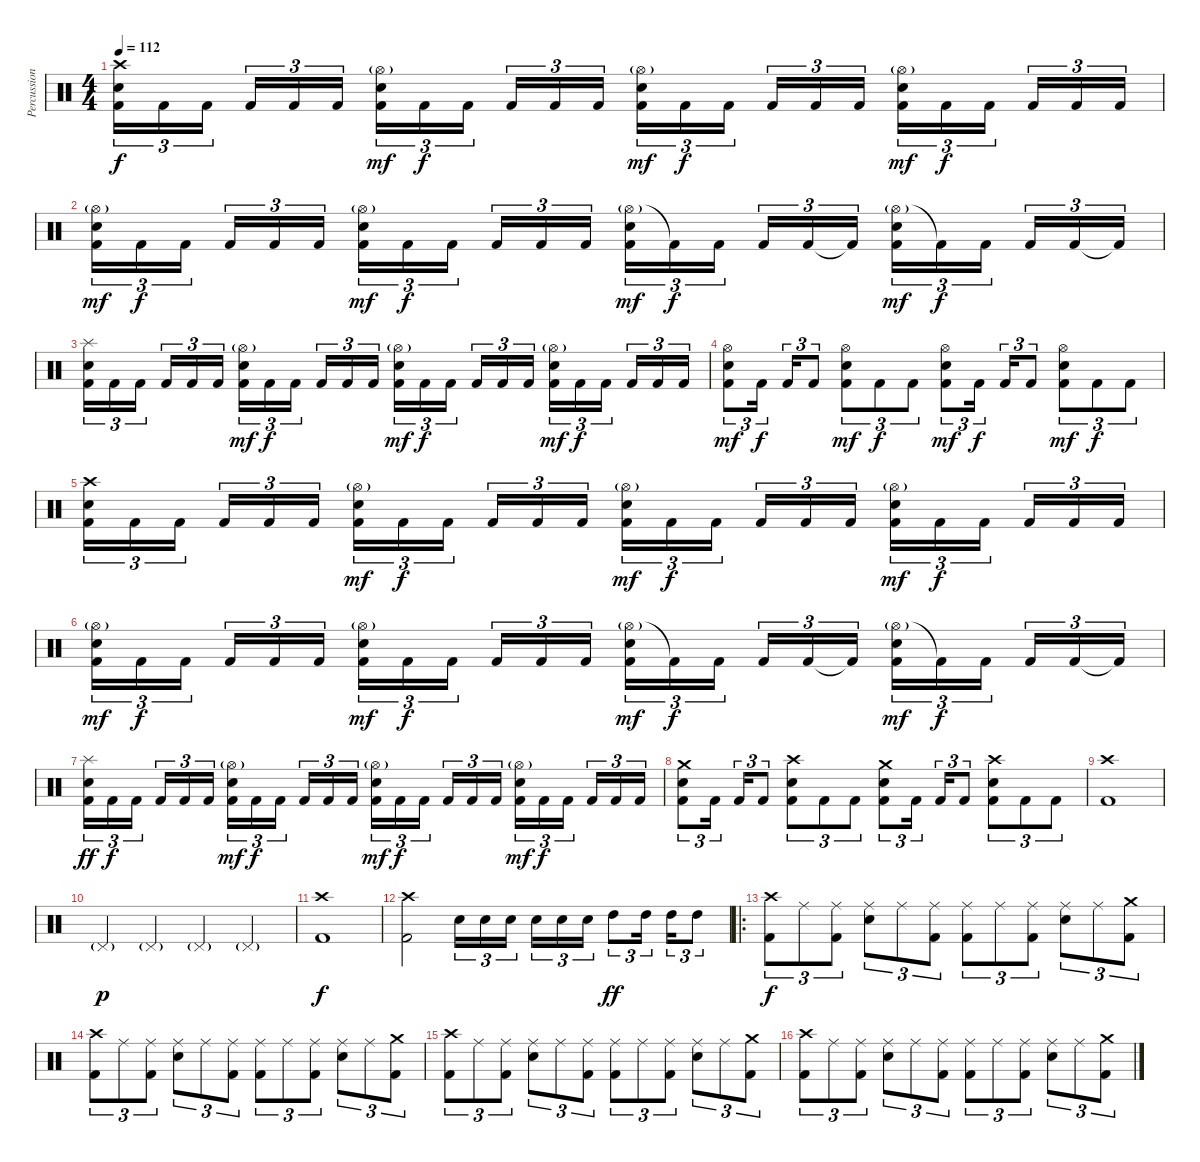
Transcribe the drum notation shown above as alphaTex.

\track ("Percussion" "Percussion") {instrument percussion}
\staff {score}
\articulation defaults
\ts (4 4)
\tempo 112
\clef neutral
\ks c
("Crash high (hit)" "Electric Snare (hit)" "Kick (hit) 2").16{tu (3 2) dy f} "Kick (hit) 2".16{tu (3 2)} "Kick (hit) 2".16{tu (3 2)} "Kick (hit) 2".16{tu (3 2)} "Kick (hit) 2".16{tu (3 2)} "Kick (hit) 2".16{tu (3 2)} ("Hi-Hat (open)"{g} "Electric Snare (hit)" "Kick (hit) 2").16{tu (3 2) dy mf} "Kick (hit) 2".16{tu (3 2) dy f} "Kick (hit) 2".16{tu (3 2)} "Kick (hit) 2".16{tu (3 2)} "Kick (hit) 2".16{tu (3 2)} "Kick (hit) 2".16{tu (3 2)} ("Hi-Hat (open)"{g} "Electric Snare (hit)" "Kick (hit) 2").16{tu (3 2) dy mf} "Kick (hit) 2".16{tu (3 2) dy f} "Kick (hit) 2".16{tu (3 2)} "Kick (hit) 2".16{tu (3 2)} "Kick (hit) 2".16{tu (3 2)} "Kick (hit) 2".16{tu (3 2)} ("Hi-Hat (open)"{g} "Electric Snare (hit)" "Kick (hit) 2").16{tu (3 2) dy mf} "Kick (hit) 2".16{tu (3 2) dy f} "Kick (hit) 2".16{tu (3 2)} "Kick (hit) 2".16{tu (3 2)} "Kick (hit) 2".16{tu (3 2)} "Kick (hit) 2".16{tu (3 2)} |
("Hi-Hat (open)"{g} "Electric Snare (hit)" "Kick (hit) 2").16{tu (3 2) dy mf} "Kick (hit) 2".16{tu (3 2) dy f} "Kick (hit) 2".16{tu (3 2)} "Kick (hit) 2".16{tu (3 2)} "Kick (hit) 2".16{tu (3 2)} "Kick (hit) 2".16{tu (3 2)} ("Hi-Hat (open)"{g} "Electric Snare (hit)" "Kick (hit) 2").16{tu (3 2) dy mf} "Kick (hit) 2".16{tu (3 2) dy f} "Kick (hit) 2".16{tu (3 2)} "Kick (hit) 2".16{tu (3 2)} "Kick (hit) 2".16{tu (3 2)} "Kick (hit) 2".16{tu (3 2)} ("Hi-Hat (open)"{g} "Electric Snare (hit)" "Kick (hit) 2").16{tu (3 2) dy mf} "Kick (hit) 2"{t}.16{tu (3 2) dy f} "Kick (hit) 2".16{tu (3 2)} "Kick (hit) 2".16{tu (3 2)} "Kick (hit) 2".16{tu (3 2)} "Kick (hit) 2"{t}.16{tu (3 2)} ("Hi-Hat (open)"{g} "Electric Snare (hit)" "Kick (hit) 2").16{tu (3 2) dy mf} "Kick (hit) 2"{t}.16{tu (3 2) dy f} "Kick (hit) 2".16{tu (3 2)} "Kick (hit) 2".16{tu (3 2)} "Kick (hit) 2".16{tu (3 2)} "Kick (hit) 2"{t}.16{tu (3 2)} |
("Splash (hit)" "Electric Snare (hit)" "Kick (hit) 2").16{tu (3 2)} "Kick (hit) 2".16{tu (3 2)} "Kick (hit) 2".16{tu (3 2)} "Kick (hit) 2".16{tu (3 2)} "Kick (hit) 2".16{tu (3 2)} "Kick (hit) 2".16{tu (3 2)} ("Hi-Hat (open)"{g} "Electric Snare (hit)" "Kick (hit) 2").16{tu (3 2) dy mf} "Kick (hit) 2".16{tu (3 2) dy f} "Kick (hit) 2".16{tu (3 2)} "Kick (hit) 2".16{tu (3 2)} "Kick (hit) 2".16{tu (3 2)} "Kick (hit) 2".16{tu (3 2)} ("Hi-Hat (open)"{g} "Electric Snare (hit)" "Kick (hit) 2").16{tu (3 2) dy mf} "Kick (hit) 2".16{tu (3 2) dy f} "Kick (hit) 2".16{tu (3 2)} "Kick (hit) 2".16{tu (3 2)} "Kick (hit) 2".16{tu (3 2)} "Kick (hit) 2".16{tu (3 2)} ("Hi-Hat (open)"{g} "Electric Snare (hit)" "Kick (hit) 2").16{tu (3 2) dy mf} "Kick (hit) 2".16{tu (3 2) dy f} "Kick (hit) 2".16{tu (3 2)} "Kick (hit) 2".16{tu (3 2)} "Kick (hit) 2".16{tu (3 2)} "Kick (hit) 2".16{tu (3 2)} |
("Hi-Hat (open)" "Electric Snare (hit)" "Kick (hit) 2").8{tu (3 2) dy mf} "Kick (hit) 2".16{tu (3 2) dy f} "Kick (hit) 2".16{tu (3 2)} "Kick (hit) 2".8{tu (3 2)} ("Hi-Hat (open)" "Electric Snare (hit)" "Kick (hit) 2").8{tu (3 2) dy mf} "Kick (hit) 2".8{tu (3 2) dy f} "Kick (hit) 2".8{tu (3 2)} ("Hi-Hat (open)" "Electric Snare (hit)" "Kick (hit) 2").8{tu (3 2) dy mf} "Kick (hit) 2".16{tu (3 2) dy f} "Kick (hit) 2".16{tu (3 2)} "Kick (hit) 2".8{tu (3 2)} ("Hi-Hat (open)" "Electric Snare (hit)" "Kick (hit) 2").8{tu (3 2) dy mf} "Kick (hit) 2".8{tu (3 2) dy f} "Kick (hit) 2".8{tu (3 2)} |
("Crash high (hit)" "Electric Snare (hit)" "Kick (hit) 2").16{tu (3 2)} "Kick (hit) 2".16{tu (3 2)} "Kick (hit) 2".16{tu (3 2)} "Kick (hit) 2".16{tu (3 2)} "Kick (hit) 2".16{tu (3 2)} "Kick (hit) 2".16{tu (3 2)} ("Hi-Hat (open)"{g} "Electric Snare (hit)" "Kick (hit) 2").16{tu (3 2) dy mf} "Kick (hit) 2".16{tu (3 2) dy f} "Kick (hit) 2".16{tu (3 2)} "Kick (hit) 2".16{tu (3 2)} "Kick (hit) 2".16{tu (3 2)} "Kick (hit) 2".16{tu (3 2)} ("Hi-Hat (open)"{g} "Electric Snare (hit)" "Kick (hit) 2").16{tu (3 2) dy mf} "Kick (hit) 2".16{tu (3 2) dy f} "Kick (hit) 2".16{tu (3 2)} "Kick (hit) 2".16{tu (3 2)} "Kick (hit) 2".16{tu (3 2)} "Kick (hit) 2".16{tu (3 2)} ("Hi-Hat (open)"{g} "Electric Snare (hit)" "Kick (hit) 2").16{tu (3 2) dy mf} "Kick (hit) 2".16{tu (3 2) dy f} "Kick (hit) 2".16{tu (3 2)} "Kick (hit) 2".16{tu (3 2)} "Kick (hit) 2".16{tu (3 2)} "Kick (hit) 2".16{tu (3 2)} |
("Hi-Hat (open)"{g} "Electric Snare (hit)" "Kick (hit) 2").16{tu (3 2) dy mf} "Kick (hit) 2".16{tu (3 2) dy f} "Kick (hit) 2".16{tu (3 2)} "Kick (hit) 2".16{tu (3 2)} "Kick (hit) 2".16{tu (3 2)} "Kick (hit) 2".16{tu (3 2)} ("Hi-Hat (open)"{g} "Electric Snare (hit)" "Kick (hit) 2").16{tu (3 2) dy mf} "Kick (hit) 2".16{tu (3 2) dy f} "Kick (hit) 2".16{tu (3 2)} "Kick (hit) 2".16{tu (3 2)} "Kick (hit) 2".16{tu (3 2)} "Kick (hit) 2".16{tu (3 2)} ("Hi-Hat (open)"{g} "Electric Snare (hit)" "Kick (hit) 2").16{tu (3 2) dy mf} "Kick (hit) 2"{t}.16{tu (3 2) dy f} "Kick (hit) 2".16{tu (3 2)} "Kick (hit) 2".16{tu (3 2)} "Kick (hit) 2".16{tu (3 2)} "Kick (hit) 2"{t}.16{tu (3 2)} ("Hi-Hat (open)"{g} "Electric Snare (hit)" "Kick (hit) 2").16{tu (3 2) dy mf} "Kick (hit) 2"{t}.16{tu (3 2) dy f} "Kick (hit) 2".16{tu (3 2)} "Kick (hit) 2".16{tu (3 2)} "Kick (hit) 2".16{tu (3 2)} "Kick (hit) 2"{t}.16{tu (3 2)} |
("Splash (hit)" "Electric Snare (hit)" "Kick (hit) 2").16{tu (3 2) dy ff} "Kick (hit) 2".16{tu (3 2) dy f} "Kick (hit) 2".16{tu (3 2)} "Kick (hit) 2".16{tu (3 2)} "Kick (hit) 2".16{tu (3 2)} "Kick (hit) 2".16{tu (3 2)} ("Hi-Hat (open)"{g} "Electric Snare (hit)" "Kick (hit) 2").16{tu (3 2) dy mf} "Kick (hit) 2".16{tu (3 2) dy f} "Kick (hit) 2".16{tu (3 2)} "Kick (hit) 2".16{tu (3 2)} "Kick (hit) 2".16{tu (3 2)} "Kick (hit) 2".16{tu (3 2)} ("Hi-Hat (open)"{g} "Electric Snare (hit)" "Kick (hit) 2").16{tu (3 2) dy mf} "Kick (hit) 2".16{tu (3 2) dy f} "Kick (hit) 2".16{tu (3 2)} "Kick (hit) 2".16{tu (3 2)} "Kick (hit) 2".16{tu (3 2)} "Kick (hit) 2".16{tu (3 2)} ("Hi-Hat (open)"{g} "Electric Snare (hit)" "Kick (hit) 2").16{tu (3 2) dy mf} "Kick (hit) 2".16{tu (3 2) dy f} "Kick (hit) 2".16{tu (3 2)} "Kick (hit) 2".16{tu (3 2)} "Kick (hit) 2".16{tu (3 2)} "Kick (hit) 2".16{tu (3 2)} |
("Crash medium (hit)" "Electric Snare (hit)" "Kick (hit) 2").8{tu (3 2)} "Kick (hit) 2".16{tu (3 2)} "Kick (hit) 2".16{tu (3 2)} "Kick (hit) 2".8{tu (3 2)} ("Crash high (hit)" "Electric Snare (hit)" "Kick (hit) 2").8{tu (3 2)} "Kick (hit) 2".8{tu (3 2)} "Kick (hit) 2".8{tu (3 2)} ("Crash medium (hit)" "Electric Snare (hit)" "Kick (hit) 2").8{tu (3 2)} "Kick (hit) 2".16{tu (3 2)} "Kick (hit) 2".16{tu (3 2)} "Kick (hit) 2".8{tu (3 2)} ("Crash high (hit)" "Electric Snare (hit)" "Kick (hit) 2").8{tu (3 2)} "Kick (hit) 2".8{tu (3 2)} "Kick (hit) 2".8{tu (3 2)} |
("Crash high (hit)" "Kick (hit) 2").1 |
"Pedal Hi-Hat (hit)"{g}.4{dy p} "Pedal Hi-Hat (hit)"{g}.4 "Pedal Hi-Hat (hit)"{g}.4 "Pedal Hi-Hat (hit)"{g}.4 |
("Crash high (hit)" "Kick (hit) 2").1{dy f} |
("Crash high (hit)" "Kick (hit) 2").2 "Electric Snare (hit)".16{tu (3 2)} "Electric Snare (hit)".16{tu (3 2)} "Electric Snare (hit)".16{tu (3 2)} "Electric Snare (hit)".16{tu (3 2)} "Electric Snare (hit)".16{tu (3 2)} "Electric Snare (hit)".16{tu (3 2)} "High Tom (hit)".8{tu (3 2) dy ff} "High Tom (hit)".16{tu (3 2)} "High Tom (hit)".16{tu (3 2)} "High Tom (hit)".8{tu (3 2)} |
\ro
("Crash high (hit)" "Kick (hit) 2").8{tu (3 2) dy f} "Ride (middle)".8{tu (3 2)} ("Ride (middle)" "Kick (hit) 2").8{tu (3 2)} ("Ride (middle)" "Electric Snare (hit)").8{tu (3 2)} "Ride (middle)".8{tu (3 2)} ("Ride (middle)" "Kick (hit) 2").8{tu (3 2)} ("Ride (middle)" "Kick (hit) 2").8{tu (3 2)} "Ride (middle)".8{tu (3 2)} ("Ride (middle)" "Kick (hit) 2").8{tu (3 2)} ("Ride (middle)" "Electric Snare (hit)").8{tu (3 2)} "Ride (middle)".8{tu (3 2)} ("Crash medium (hit)" "Kick (hit) 2").8{tu (3 2)} |
("Crash high (hit)" "Kick (hit) 2").8{tu (3 2)} "Ride (middle)".8{tu (3 2)} ("Ride (middle)" "Kick (hit) 2").8{tu (3 2)} ("Ride (middle)" "Electric Snare (hit)").8{tu (3 2)} "Ride (middle)".8{tu (3 2)} ("Ride (middle)" "Kick (hit) 2").8{tu (3 2)} ("Ride (middle)" "Kick (hit) 2").8{tu (3 2)} "Ride (middle)".8{tu (3 2)} ("Ride (middle)" "Kick (hit) 2").8{tu (3 2)} ("Ride (middle)" "Electric Snare (hit)").8{tu (3 2)} "Ride (middle)".8{tu (3 2)} ("Crash medium (hit)" "Kick (hit) 2").8{tu (3 2)} |
("Crash high (hit)" "Kick (hit) 2").8{tu (3 2)} "Ride (middle)".8{tu (3 2)} ("Ride (middle)" "Kick (hit) 2").8{tu (3 2)} ("Ride (middle)" "Electric Snare (hit)").8{tu (3 2)} "Ride (middle)".8{tu (3 2)} ("Ride (middle)" "Kick (hit) 2").8{tu (3 2)} ("Ride (middle)" "Kick (hit) 2").8{tu (3 2)} "Ride (middle)".8{tu (3 2)} ("Ride (middle)" "Kick (hit) 2").8{tu (3 2)} ("Ride (middle)" "Electric Snare (hit)").8{tu (3 2)} "Ride (middle)".8{tu (3 2)} ("Crash medium (hit)" "Kick (hit) 2").8{tu (3 2)} |
("Crash high (hit)" "Kick (hit) 2").8{tu (3 2)} "Ride (middle)".8{tu (3 2)} ("Ride (middle)" "Kick (hit) 2").8{tu (3 2)} ("Ride (middle)" "Electric Snare (hit)").8{tu (3 2)} "Ride (middle)".8{tu (3 2)} ("Ride (middle)" "Kick (hit) 2").8{tu (3 2)} ("Ride (middle)" "Kick (hit) 2").8{tu (3 2)} "Ride (middle)".8{tu (3 2)} ("Ride (middle)" "Kick (hit) 2").8{tu (3 2)} ("Ride (middle)" "Electric Snare (hit)").8{tu (3 2)} "Ride (middle)".8{tu (3 2)} ("Crash medium (hit)" "Kick (hit) 2").8{tu (3 2)}
